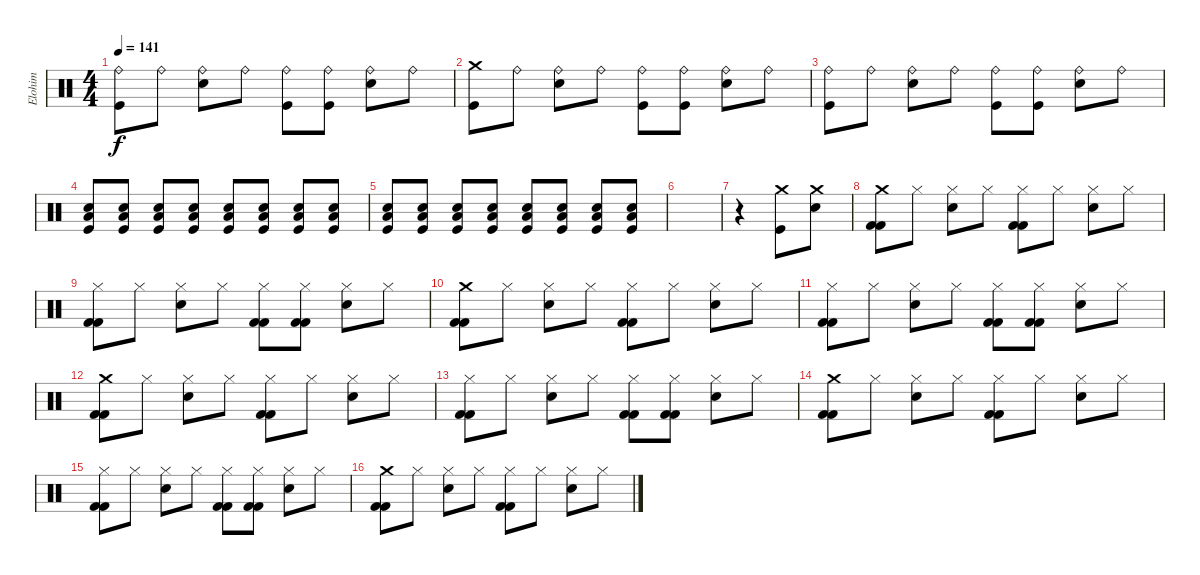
\track ("Elohim" "Elohim") {instrument percussion}
\staff {score}
\articulation defaults
\ts (4 4)
\tempo 141
\clef neutral
\ks c
("Ride (bell)" "Kick (hit)").8{dy f} "Ride (bell)".8 ("Ride (bell)" "Electric Snare (hit)").8 "Ride (bell)".8 ("Ride (bell)" "Kick (hit)").8 ("Ride (bell)" "Kick (hit)").8 ("Ride (bell)" "Electric Snare (hit)").8 "Ride (bell)".8 |
("Crash medium (hit)" "Kick (hit)").8 "Ride (bell)".8 ("Ride (bell)" "Electric Snare (hit)").8 "Ride (bell)".8 ("Ride (bell)" "Kick (hit)").8 ("Ride (bell)" "Kick (hit)").8 ("Ride (bell)" "Electric Snare (hit)").8 "Ride (bell)".8 |
("Ride (bell)" "Kick (hit)").8 "Ride (bell)".8 ("Ride (bell)" "Electric Snare (hit)").8 "Ride (bell)".8 ("Ride (bell)" "Kick (hit)").8 ("Ride (bell)" "Kick (hit)").8 ("Ride (bell)" "Electric Snare (hit)").8 "Ride (bell)".8 |
("Kick (hit)" "Low Floor Tom (hit)" "Electric Snare (hit)").8 ("Kick (hit)" "Low Floor Tom (hit)" "Electric Snare (hit)").8 ("Kick (hit)" "Low Floor Tom (hit)" "Electric Snare (hit)").8 ("Kick (hit)" "Low Floor Tom (hit)" "Electric Snare (hit)").8 ("Kick (hit)" "Low Floor Tom (hit)" "Electric Snare (hit)").8 ("Kick (hit)" "Low Floor Tom (hit)" "Electric Snare (hit)").8 ("Kick (hit)" "Low Floor Tom (hit)" "Electric Snare (hit)").8 ("Kick (hit)" "Low Floor Tom (hit)" "Electric Snare (hit)").8 |
("Kick (hit)" "Low Floor Tom (hit)" "Electric Snare (hit)").8 ("Kick (hit)" "Low Floor Tom (hit)" "Electric Snare (hit)").8 ("Kick (hit)" "Low Floor Tom (hit)" "Electric Snare (hit)").8 ("Kick (hit)" "Low Floor Tom (hit)" "Electric Snare (hit)").8 ("Kick (hit)" "Low Floor Tom (hit)" "Electric Snare (hit)").8 ("Kick (hit)" "Low Floor Tom (hit)" "Electric Snare (hit)").8 ("Kick (hit)" "Low Floor Tom (hit)" "Electric Snare (hit)").8 ("Kick (hit)" "Low Floor Tom (hit)" "Electric Snare (hit)").8 |
|
r.4 ("Crash medium (hit)" "Kick (hit)").8 ("Crash medium (hit)" "Electric Snare (hit)").8 |
("Crash medium (hit)" "Kick (hit) 2" "Kick (hit) 2").8 "Hi-Hat (closed)".8 ("Hi-Hat (closed)" "Snare (hit) 2").8 "Hi-Hat (closed)".8 ("Hi-Hat (closed)" "Kick (hit) 2" "Kick (hit) 2").8 "Hi-Hat (closed)".8 ("Hi-Hat (closed)" "Snare (hit) 2").8 "Hi-Hat (closed)".8 |
("Hi-Hat (closed)" "Kick (hit) 2" "Kick (hit) 2").8 "Hi-Hat (closed)".8 ("Hi-Hat (closed)" "Snare (hit) 2").8 "Hi-Hat (closed)".8 ("Hi-Hat (closed)" "Kick (hit) 2" "Kick (hit) 2").8 ("Hi-Hat (closed)" "Kick (hit) 2" "Kick (hit) 2").8 ("Hi-Hat (closed)" "Snare (hit) 2").8 "Hi-Hat (closed)".8 |
("Crash medium (hit)" "Kick (hit) 2" "Kick (hit) 2").8 "Hi-Hat (closed)".8 ("Hi-Hat (closed)" "Snare (hit) 2").8 "Hi-Hat (closed)".8 ("Hi-Hat (closed)" "Kick (hit) 2" "Kick (hit) 2").8 "Hi-Hat (closed)".8 ("Hi-Hat (closed)" "Snare (hit) 2").8 "Hi-Hat (closed)".8 |
("Hi-Hat (closed)" "Kick (hit) 2" "Kick (hit) 2").8 "Hi-Hat (closed)".8 ("Hi-Hat (closed)" "Snare (hit) 2").8 "Hi-Hat (closed)".8 ("Hi-Hat (closed)" "Kick (hit) 2" "Kick (hit) 2").8 ("Hi-Hat (closed)" "Kick (hit) 2" "Kick (hit) 2").8 ("Hi-Hat (closed)" "Snare (hit) 2").8 "Hi-Hat (closed)".8 |
("Crash medium (hit)" "Kick (hit) 2" "Kick (hit) 2").8 "Hi-Hat (closed)".8 ("Hi-Hat (closed)" "Snare (hit) 2").8 "Hi-Hat (closed)".8 ("Hi-Hat (closed)" "Kick (hit) 2" "Kick (hit) 2").8 "Hi-Hat (closed)".8 ("Hi-Hat (closed)" "Snare (hit) 2").8 "Hi-Hat (closed)".8 |
("Hi-Hat (closed)" "Kick (hit) 2" "Kick (hit) 2").8 "Hi-Hat (closed)".8 ("Hi-Hat (closed)" "Snare (hit) 2").8 "Hi-Hat (closed)".8 ("Hi-Hat (closed)" "Kick (hit) 2" "Kick (hit) 2").8 ("Hi-Hat (closed)" "Kick (hit) 2" "Kick (hit) 2").8 ("Hi-Hat (closed)" "Snare (hit) 2").8 "Hi-Hat (closed)".8 |
("Crash medium (hit)" "Kick (hit) 2" "Kick (hit) 2").8 "Hi-Hat (closed)".8 ("Hi-Hat (closed)" "Snare (hit) 2").8 "Hi-Hat (closed)".8 ("Hi-Hat (closed)" "Kick (hit) 2" "Kick (hit) 2").8 "Hi-Hat (closed)".8 ("Hi-Hat (closed)" "Snare (hit) 2").8 "Hi-Hat (closed)".8 |
("Hi-Hat (closed)" "Kick (hit) 2" "Kick (hit) 2").8 "Hi-Hat (closed)".8 ("Hi-Hat (closed)" "Snare (hit) 2").8 "Hi-Hat (closed)".8 ("Hi-Hat (closed)" "Kick (hit) 2" "Kick (hit) 2").8 ("Hi-Hat (closed)" "Kick (hit) 2" "Kick (hit) 2").8 ("Hi-Hat (closed)" "Snare (hit) 2").8 "Hi-Hat (closed)".8 |
("Crash medium (hit)" "Kick (hit) 2" "Kick (hit) 2").8 "Hi-Hat (closed)".8 ("Hi-Hat (closed)" "Snare (hit) 2").8 "Hi-Hat (closed)".8 ("Hi-Hat (closed)" "Kick (hit) 2" "Kick (hit) 2").8 "Hi-Hat (closed)".8 ("Hi-Hat (closed)" "Snare (hit) 2").8 "Hi-Hat (closed)".8
